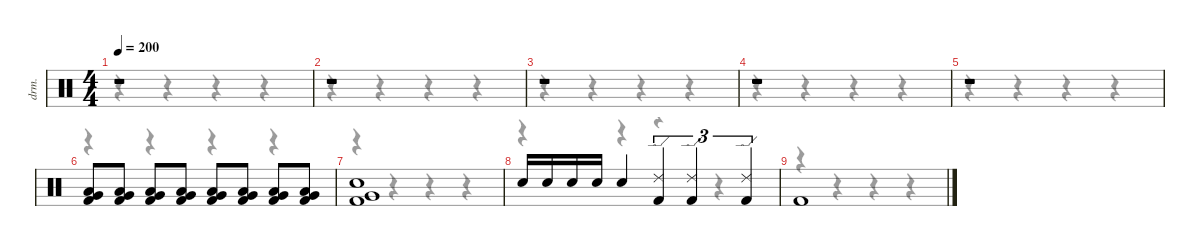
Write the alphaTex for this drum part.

\hideDynamics
\bracketExtendMode nobrackets
\otherSystemsTrackNameOrientation horizontal
\track ("Drums" "drm.") {instrument percussion}
\staff {score}
\articulation defaults
\voice
\ts (4 4)
\scale
0.975432
\tempo 200
\accidentals auto
\clef neutral
\ottava regular
\simile none
\ks c
r.1{dy f} |
\scale
0.975432 r.1 |
\scale
1.10433 r.1 |
\scale
0.972637 r.1 |
\scale
0.988396 r.1 |
\section ("" "")
\scale
0.972637 ("Kick (hit) 2" "Very Low Tom (hit)" "Low Floor Tom (hit)").8 ("Kick (hit) 2" "Very Low Tom (hit)" "Low Floor Tom (hit)").8 ("Kick (hit) 2" "Very Low Tom (hit)" "Low Floor Tom (hit)").8 ("Kick (hit) 2" "Very Low Tom (hit)" "Low Floor Tom (hit)").8 ("Kick (hit) 2" "Very Low Tom (hit)" "Low Floor Tom (hit)").8 ("Kick (hit) 2" "Very Low Tom (hit)" "Low Floor Tom (hit)").8 ("Kick (hit) 2" "Very Low Tom (hit)" "Low Floor Tom (hit)").8 ("Kick (hit) 2" "Very Low Tom (hit)" "Low Floor Tom (hit)").8 |
\scale
0.972637 ("Kick (hit) 2" "Snare (hit) 2" "Very Low Tom (hit)").1 |
\scale
0.972637 "Snare (hit) 2".16 "Snare (hit) 2".16 "Snare (hit) 2".16 "Snare (hit) 2".16 "Snare (hit) 2".4 ("Kick (hit) 2" "Ride (edge) 2").4{tu (3 2)} ("Kick (hit) 2" "Ride (edge) 2").4{tu (3 2)} ("Kick (hit) 2" "Ride (edge) 2").4{tu (3 2)} |
\scale
1.01672 "Kick (hit) 2".1
\voice
\clef neutral
\ottava regular
\simile none
\ks c
r.4{dy mf} r.4 r.4 r.4 |
r.4 r.4 r.4 r.4 |
r.4 r.4 r.4 r.4 |
r.4 r.4 r.4 r.4 |
r.4 r.4 r.4 r.4 |
r.4 r.4 r.4 r.4 |
r.4 r.4 r.4 r.4 |
r.4 r.4 r.4 r.4 |
r.4 r.4 r.4 r.4
